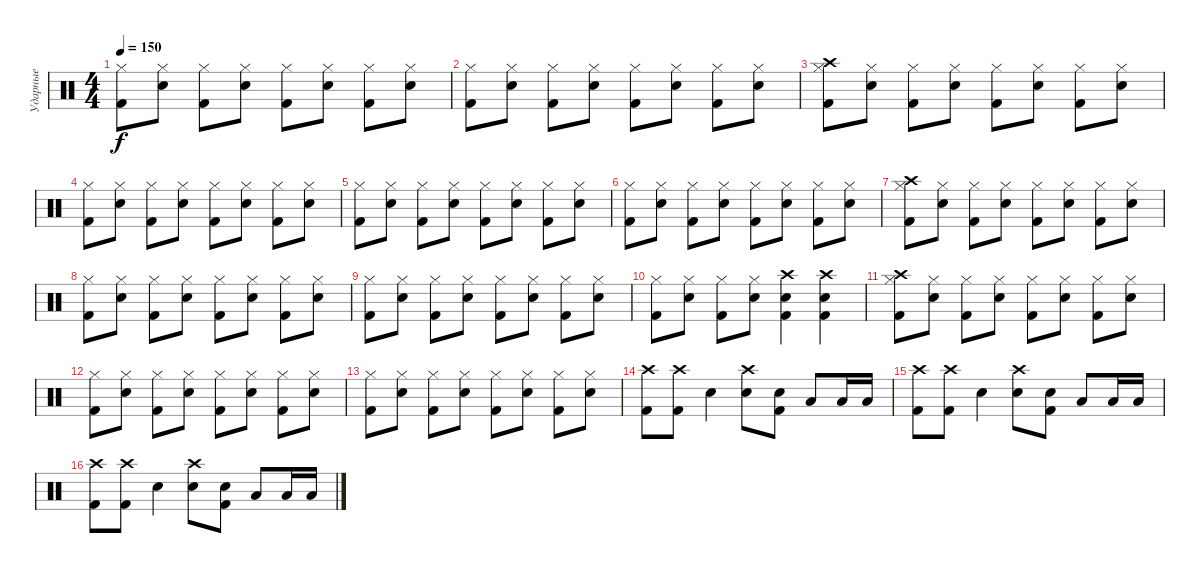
\track ("Ударные" "Ударные") {instrument percussion}
\staff {score}
\articulation defaults
\ts (4 4)
\tempo 150
\clef neutral
\ks c
("Kick (hit) 2" "Hi-Hat (closed)").8{dy f} ("Snare (hit) 2" "Hi-Hat (closed)").8 ("Kick (hit) 2" "Hi-Hat (closed)").8 ("Snare (hit) 2" "Hi-Hat (closed)").8 ("Kick (hit) 2" "Hi-Hat (closed)").8 ("Snare (hit) 2" "Hi-Hat (closed)").8 ("Kick (hit) 2" "Hi-Hat (closed)").8 ("Snare (hit) 2" "Hi-Hat (closed)").8 |
("Kick (hit) 2" "Hi-Hat (closed)").8 ("Snare (hit) 2" "Hi-Hat (closed)").8 ("Kick (hit) 2" "Hi-Hat (closed)").8 ("Snare (hit) 2" "Hi-Hat (closed)").8 ("Kick (hit) 2" "Hi-Hat (closed)").8 ("Snare (hit) 2" "Hi-Hat (closed)").8 ("Kick (hit) 2" "Hi-Hat (closed)").8 ("Snare (hit) 2" "Hi-Hat (closed)").8 |
("Kick (hit) 2" "Hi-Hat (closed)" "Crash high (hit)").8 ("Snare (hit) 2" "Hi-Hat (closed)").8 ("Kick (hit) 2" "Hi-Hat (closed)").8 ("Snare (hit) 2" "Hi-Hat (closed)").8 ("Kick (hit) 2" "Hi-Hat (closed)").8 ("Snare (hit) 2" "Hi-Hat (closed)").8 ("Kick (hit) 2" "Hi-Hat (closed)").8 ("Snare (hit) 2" "Hi-Hat (closed)").8 |
("Kick (hit) 2" "Hi-Hat (closed)").8 ("Snare (hit) 2" "Hi-Hat (closed)").8 ("Kick (hit) 2" "Hi-Hat (closed)").8 ("Snare (hit) 2" "Hi-Hat (closed)").8 ("Kick (hit) 2" "Hi-Hat (closed)").8 ("Snare (hit) 2" "Hi-Hat (closed)").8 ("Kick (hit) 2" "Hi-Hat (closed)").8 ("Snare (hit) 2" "Hi-Hat (closed)").8 |
("Kick (hit) 2" "Hi-Hat (closed)").8 ("Snare (hit) 2" "Hi-Hat (closed)").8 ("Kick (hit) 2" "Hi-Hat (closed)").8 ("Snare (hit) 2" "Hi-Hat (closed)").8 ("Kick (hit) 2" "Hi-Hat (closed)").8 ("Snare (hit) 2" "Hi-Hat (closed)").8 ("Kick (hit) 2" "Hi-Hat (closed)").8 ("Snare (hit) 2" "Hi-Hat (closed)").8 |
("Kick (hit) 2" "Hi-Hat (closed)").8 ("Snare (hit) 2" "Hi-Hat (closed)").8 ("Kick (hit) 2" "Hi-Hat (closed)").8 ("Snare (hit) 2" "Hi-Hat (closed)").8 ("Kick (hit) 2" "Hi-Hat (closed)").8 ("Snare (hit) 2" "Hi-Hat (closed)").8 ("Kick (hit) 2" "Hi-Hat (closed)").8 ("Snare (hit) 2" "Hi-Hat (closed)").8 |
("Kick (hit) 2" "Hi-Hat (closed)" "Crash high (hit)").8 ("Snare (hit) 2" "Hi-Hat (closed)").8 ("Kick (hit) 2" "Hi-Hat (closed)").8 ("Snare (hit) 2" "Hi-Hat (closed)").8 ("Kick (hit) 2" "Hi-Hat (closed)").8 ("Snare (hit) 2" "Hi-Hat (closed)").8 ("Kick (hit) 2" "Hi-Hat (closed)").8 ("Snare (hit) 2" "Hi-Hat (closed)").8 |
("Kick (hit) 2" "Hi-Hat (closed)").8 ("Snare (hit) 2" "Hi-Hat (closed)").8 ("Kick (hit) 2" "Hi-Hat (closed)").8 ("Snare (hit) 2" "Hi-Hat (closed)").8 ("Kick (hit) 2" "Hi-Hat (closed)").8 ("Snare (hit) 2" "Hi-Hat (closed)").8 ("Kick (hit) 2" "Hi-Hat (closed)").8 ("Snare (hit) 2" "Hi-Hat (closed)").8 |
("Kick (hit) 2" "Hi-Hat (closed)").8 ("Snare (hit) 2" "Hi-Hat (closed)").8 ("Kick (hit) 2" "Hi-Hat (closed)").8 ("Snare (hit) 2" "Hi-Hat (closed)").8 ("Kick (hit) 2" "Hi-Hat (closed)").8 ("Snare (hit) 2" "Hi-Hat (closed)").8 ("Kick (hit) 2" "Hi-Hat (closed)").8 ("Snare (hit) 2" "Hi-Hat (closed)").8 |
("Kick (hit) 2" "Hi-Hat (closed)").8 ("Snare (hit) 2" "Hi-Hat (closed)").8 ("Kick (hit) 2" "Hi-Hat (closed)").8 ("Snare (hit) 2" "Hi-Hat (closed)").8 ("Kick (hit) 2" "Snare (hit) 2" "Crash high (hit)").4 ("Kick (hit) 2" "Snare (hit) 2" "Crash high (hit)").4 |
("Kick (hit) 2" "Hi-Hat (closed)" "Crash high (hit)").8 ("Snare (hit) 2" "Hi-Hat (closed)").8 ("Kick (hit) 2" "Hi-Hat (closed)").8 ("Snare (hit) 2" "Hi-Hat (closed)").8 ("Kick (hit) 2" "Hi-Hat (closed)").8 ("Snare (hit) 2" "Hi-Hat (closed)").8 ("Kick (hit) 2" "Hi-Hat (closed)").8 ("Snare (hit) 2" "Hi-Hat (closed)").8 |
("Kick (hit) 2" "Hi-Hat (closed)").8 ("Snare (hit) 2" "Hi-Hat (closed)").8 ("Kick (hit) 2" "Hi-Hat (closed)").8 ("Snare (hit) 2" "Hi-Hat (closed)").8 ("Kick (hit) 2" "Hi-Hat (closed)").8 ("Snare (hit) 2" "Hi-Hat (closed)").8 ("Kick (hit) 2" "Hi-Hat (closed)").8 ("Snare (hit) 2" "Hi-Hat (closed)").8 |
("Kick (hit) 2" "Hi-Hat (closed)").8 ("Snare (hit) 2" "Hi-Hat (closed)").8 ("Kick (hit) 2" "Hi-Hat (closed)").8 ("Snare (hit) 2" "Hi-Hat (closed)").8 ("Kick (hit) 2" "Hi-Hat (closed)").8 ("Snare (hit) 2" "Hi-Hat (closed)").8 ("Kick (hit) 2" "Hi-Hat (closed)").8 ("Snare (hit) 2" "Hi-Hat (closed)").8 |
("Kick (hit) 2" "Crash high (hit)").8 ("Kick (hit) 2" "Crash high (hit)").8 "Snare (hit) 2".4 ("Snare (hit) 2" "Crash high (hit)").8 ("Snare (hit) 2" "Kick (hit) 2").8 "Low Tom (hit)".8 "Low Tom (hit)".16 "Low Tom (hit)".16 |
("Kick (hit) 2" "Crash high (hit)").8 ("Kick (hit) 2" "Crash high (hit)").8 "Snare (hit) 2".4 ("Snare (hit) 2" "Crash high (hit)").8 ("Snare (hit) 2" "Kick (hit) 2").8 "Low Tom (hit)".8 "Low Tom (hit)".16 "Low Tom (hit)".16 |
("Kick (hit) 2" "Crash high (hit)").8 ("Kick (hit) 2" "Crash high (hit)").8 "Snare (hit) 2".4 ("Snare (hit) 2" "Crash high (hit)").8 ("Snare (hit) 2" "Kick (hit) 2").8 "Low Tom (hit)".8 "Low Tom (hit)".16 "Low Tom (hit)".16
